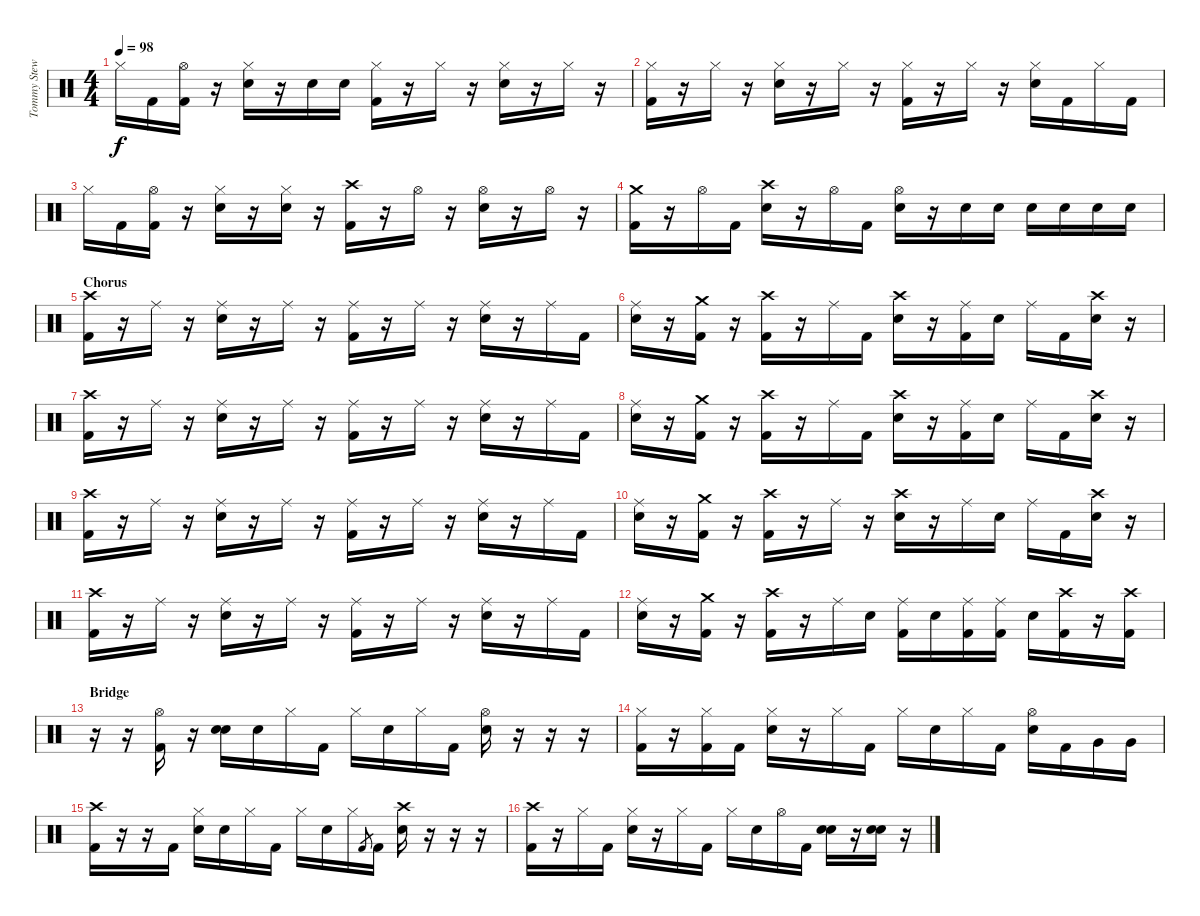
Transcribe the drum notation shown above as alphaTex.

\track ("Tommy Stewart - Drums" "Tommy Stew") {instrument percussion}
\staff {score}
\articulation defaults
\ts (4 4)
\tempo 98
\clef neutral
\ks c "Hi-Hat (closed)".16{dy f} "Kick (hit) 2".16
("Hi-Hat (open)" "Kick (hit) 2").16 r.16 ("Hi-Hat (closed)" "Snare (hit) 2").16 r.16 "Snare (hit) 2".16 "Snare (hit) 2".16 ("Hi-Hat (closed)" "Kick (hit) 2").16 r.16 "Hi-Hat (closed)".16 r.16 ("Hi-Hat (closed)" "Snare (hit) 2").16 r.16 "Hi-Hat (closed)".16 r.16 |
("Hi-Hat (closed)" "Kick (hit) 2").16 r.16 "Hi-Hat (closed)".16 r.16 ("Hi-Hat (closed)" "Snare (hit) 2").16 r.16 "Hi-Hat (closed)".16 r.16 ("Hi-Hat (closed)" "Kick (hit) 2").16 r.16 "Hi-Hat (closed)".16 r.16 ("Hi-Hat (closed)" "Snare (hit) 2").16 "Kick (hit) 2".16 "Hi-Hat (closed)".16 "Kick (hit) 2".16 |
"Hi-Hat (closed)".16 "Kick (hit) 2".16 ("Hi-Hat (open)" "Kick (hit) 2").16 r.16 ("Hi-Hat (closed)" "Snare (hit) 2").16 r.16 ("Hi-Hat (closed)" "Snare (hit) 2").16 r.16 ("Crash high (hit)" "Kick (hit) 2").16 r.16 "Hi-Hat (open)".16 r.16 ("Hi-Hat (open)" "Snare (hit) 2").16 r.16 "Hi-Hat (open)".16 r.16 |
("Crash medium (hit)" "Kick (hit) 2").16 r.16 "Hi-Hat (open)".16 "Kick (hit) 2".16 ("Crash high (hit)" "Snare (hit) 2").16 r.16 "Hi-Hat (open)".16 "Kick (hit) 2".16 ("Hi-Hat (open)" "Snare (hit) 2").16 r.16 "Snare (hit) 2".16 "Snare (hit) 2".16 "Snare (hit) 2".16 "Snare (hit) 2".16 "Snare (hit) 2".16 "Snare (hit) 2".16 |
\section ("" "Chorus")
("Crash high (hit)" "Kick (hit) 2").16 r.16 "Ride (middle)".16 r.16 ("Ride (middle)" "Snare (hit) 2").16 r.16 "Ride (middle)".16 r.16 ("Ride (middle)" "Kick (hit) 2").16 r.16 "Ride (middle)".16 r.16 ("Ride (middle)" "Snare (hit) 2").16 r.16 "Ride (middle)".16 "Kick (hit) 2".16 |
("Ride (middle)" "Snare (hit) 2").16 r.16 ("Crash medium (hit)" "Kick (hit) 2").16 r.16 ("Crash high (hit)" "Kick (hit) 2").16 r.16 "Ride (middle)".16 "Kick (hit) 2".16 ("Crash high (hit)" "Snare (hit) 2").16 r.16 ("Ride (middle)" "Kick (hit) 2").16 "Snare (hit) 2".16 "Ride (middle)".16 "Kick (hit) 2".16 ("Crash high (hit)" "Snare (hit) 2").16 r.16 |
("Crash high (hit)" "Kick (hit) 2").16 r.16 "Ride (middle)".16 r.16 ("Ride (middle)" "Snare (hit) 2").16 r.16 "Ride (middle)".16 r.16 ("Ride (middle)" "Kick (hit) 2").16 r.16 "Ride (middle)".16 r.16 ("Ride (middle)" "Snare (hit) 2").16 r.16 "Ride (middle)".16 "Kick (hit) 2".16 |
("Ride (middle)" "Snare (hit) 2").16 r.16 ("Crash medium (hit)" "Kick (hit) 2").16 r.16 ("Crash high (hit)" "Kick (hit) 2").16 r.16 "Ride (middle)".16 "Kick (hit) 2".16 ("Crash high (hit)" "Snare (hit) 2").16 r.16 ("Ride (middle)" "Kick (hit) 2").16 "Snare (hit) 2".16 "Ride (middle)".16 "Kick (hit) 2".16 ("Crash high (hit)" "Snare (hit) 2").16 r.16 |
("Crash high (hit)" "Kick (hit) 2").16 r.16 "Ride (middle)".16 r.16 ("Ride (middle)" "Snare (hit) 2").16 r.16 "Ride (middle)".16 r.16 ("Ride (middle)" "Kick (hit) 2").16 r.16 "Ride (middle)".16 r.16 ("Ride (middle)" "Snare (hit) 2").16 r.16 "Ride (middle)".16 "Kick (hit) 2".16 |
("Ride (middle)" "Snare (hit) 2").16 r.16 ("Crash medium (hit)" "Kick (hit) 2").16 r.16 ("Crash high (hit)" "Kick (hit) 2").16 r.16 "Ride (middle)".16 r.16 ("Crash high (hit)" "Snare (hit) 2").16 r.16 "Ride (middle)".16 "Snare (hit) 2".16 "Ride (middle)".16 "Kick (hit) 2".16 ("Crash high (hit)" "Snare (hit) 2").16 r.16 |
("Crash high (hit)" "Kick (hit) 2").16 r.16 "Ride (middle)".16 r.16 ("Ride (middle)" "Snare (hit) 2").16 r.16 "Ride (middle)".16 r.16 ("Ride (middle)" "Kick (hit) 2").16 r.16 "Ride (middle)".16 r.16 ("Ride (middle)" "Snare (hit) 2").16 r.16 "Ride (middle)".16 "Kick (hit) 2".16 |
("Ride (middle)" "Snare (hit) 2").16 r.16 ("Crash medium (hit)" "Kick (hit) 2").16 r.16 ("Crash high (hit)" "Kick (hit) 2").16 r.16 "Ride (middle)".16 "Snare (hit) 2".16 ("Ride (middle)" "Kick (hit) 2").16 "Snare (hit) 2".16 ("Ride (middle)" "Kick (hit) 2").16 ("Ride (middle)" "Kick (hit) 2").16 "Snare (hit) 2".16 ("Crash high (hit)" "Kick (hit) 2").16 r.16 ("Crash high (hit)" "Kick (hit) 2").16 |
\section ("" "Bridge")
r.16 r.16 ("Hi-Hat (open)" "Kick (hit) 2").16 r.16 ("Snare (hit) 2" "Snare (hit) 2").16 "Snare (hit) 2".16 "Hi-Hat (closed)".16 "Kick (hit) 2".16 "Hi-Hat (closed)".16 "Snare (hit) 2".16 "Hi-Hat (closed)".16 "Kick (hit) 2".16 ("Hi-Hat (open)" "Snare (hit) 2").16 r.16 r.16 r.16 |
("Hi-Hat (closed)" "Kick (hit) 2").16 r.16 ("Hi-Hat (closed)" "Kick (hit) 2").16 "Kick (hit) 2".16 ("Hi-Hat (closed)" "Snare (hit) 2").16 r.16 "Hi-Hat (closed)".16 "Kick (hit) 2".16 "Hi-Hat (closed)".16 "Snare (hit) 2".16 "Hi-Hat (closed)".16 "Kick (hit) 2".16 ("Hi-Hat (open)" "Snare (hit) 2").16 "Kick (hit) 2".16 "Very Low Tom (hit)".16 "Very Low Tom (hit)".16 |
("Crash high (hit)" "Kick (hit) 2").16 r.16 r.16 "Kick (hit) 2".16 ("Hi-Hat (closed)" "Snare (hit) 2").16 "Snare (hit) 2".16 "Hi-Hat (closed)".16 "Kick (hit) 2".16 "Hi-Hat (closed)".16 "Snare (hit) 2".16 "Hi-Hat (closed)".16 "Kick (hit) 2".8{gr} "Kick (hit) 2".16 ("Crash high (hit)" "Snare (hit) 2").16 r.16 r.16 r.16 |
("Crash high (hit)" "Kick (hit) 2").16 r.16 "Hi-Hat (closed)".16 "Kick (hit) 2".16 ("Hi-Hat (closed)" "Snare (hit) 2").16 r.16 "Hi-Hat (closed)".16 "Kick (hit) 2".16 "Hi-Hat (closed)".16 "Snare (hit) 2".16 "Hi-Hat (open)".16 "Kick (hit) 2".16 ("Snare (hit) 2" "Snare (hit) 2").16 r.16 ("Snare (hit) 2" "Snare (hit) 2").16 r.16
